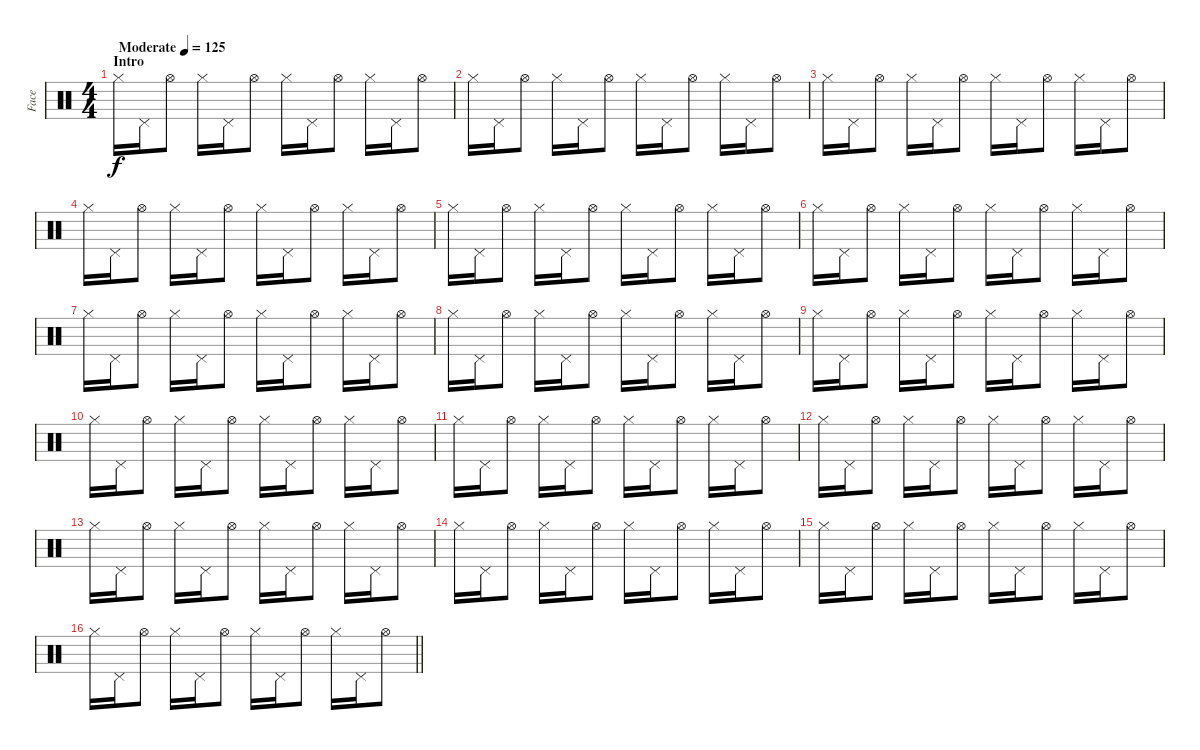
\track ("Face" "Face") {instrument percussion}
\staff {score}
\articulation defaults
\ts (4 4)
\section ("" "Intro")
\tempo (125 "Moderate")
\clef neutral
\ks c "Hi-Hat (closed)".16{dy f} "Pedal Hi-Hat (hit)".16 "Hi-Hat (open)".8 "Hi-Hat (closed)".16 "Pedal Hi-Hat (hit)".16 "Hi-Hat (open)".8 "Hi-Hat (closed)".16 "Pedal Hi-Hat (hit)".16 "Hi-Hat (open)".8 "Hi-Hat (closed)".16 "Pedal Hi-Hat (hit)".16 "Hi-Hat (open)".8
|
"Hi-Hat (closed)".16 "Pedal Hi-Hat (hit)".16 "Hi-Hat (open)".8 "Hi-Hat (closed)".16 "Pedal Hi-Hat (hit)".16 "Hi-Hat (open)".8 "Hi-Hat (closed)".16 "Pedal Hi-Hat (hit)".16 "Hi-Hat (open)".8 "Hi-Hat (closed)".16 "Pedal Hi-Hat (hit)".16 "Hi-Hat (open)".8 |
"Hi-Hat (closed)".16 "Pedal Hi-Hat (hit)".16 "Hi-Hat (open)".8 "Hi-Hat (closed)".16 "Pedal Hi-Hat (hit)".16 "Hi-Hat (open)".8 "Hi-Hat (closed)".16 "Pedal Hi-Hat (hit)".16 "Hi-Hat (open)".8 "Hi-Hat (closed)".16 "Pedal Hi-Hat (hit)".16 "Hi-Hat (open)".8 |
"Hi-Hat (closed)".16 "Pedal Hi-Hat (hit)".16 "Hi-Hat (open)".8 "Hi-Hat (closed)".16 "Pedal Hi-Hat (hit)".16 "Hi-Hat (open)".8 "Hi-Hat (closed)".16 "Pedal Hi-Hat (hit)".16 "Hi-Hat (open)".8 "Hi-Hat (closed)".16 "Pedal Hi-Hat (hit)".16 "Hi-Hat (open)".8 |
"Hi-Hat (closed)".16 "Pedal Hi-Hat (hit)".16 "Hi-Hat (open)".8 "Hi-Hat (closed)".16 "Pedal Hi-Hat (hit)".16 "Hi-Hat (open)".8 "Hi-Hat (closed)".16 "Pedal Hi-Hat (hit)".16 "Hi-Hat (open)".8 "Hi-Hat (closed)".16 "Pedal Hi-Hat (hit)".16 "Hi-Hat (open)".8 |
"Hi-Hat (closed)".16 "Pedal Hi-Hat (hit)".16 "Hi-Hat (open)".8 "Hi-Hat (closed)".16 "Pedal Hi-Hat (hit)".16 "Hi-Hat (open)".8 "Hi-Hat (closed)".16 "Pedal Hi-Hat (hit)".16 "Hi-Hat (open)".8 "Hi-Hat (closed)".16 "Pedal Hi-Hat (hit)".16 "Hi-Hat (open)".8 |
"Hi-Hat (closed)".16 "Pedal Hi-Hat (hit)".16 "Hi-Hat (open)".8 "Hi-Hat (closed)".16 "Pedal Hi-Hat (hit)".16 "Hi-Hat (open)".8 "Hi-Hat (closed)".16 "Pedal Hi-Hat (hit)".16 "Hi-Hat (open)".8 "Hi-Hat (closed)".16 "Pedal Hi-Hat (hit)".16 "Hi-Hat (open)".8 |
"Hi-Hat (closed)".16 "Pedal Hi-Hat (hit)".16 "Hi-Hat (open)".8 "Hi-Hat (closed)".16 "Pedal Hi-Hat (hit)".16 "Hi-Hat (open)".8 "Hi-Hat (closed)".16 "Pedal Hi-Hat (hit)".16 "Hi-Hat (open)".8 "Hi-Hat (closed)".16 "Pedal Hi-Hat (hit)".16 "Hi-Hat (open)".8 |
"Hi-Hat (closed)".16 "Pedal Hi-Hat (hit)".16 "Hi-Hat (open)".8 "Hi-Hat (closed)".16 "Pedal Hi-Hat (hit)".16 "Hi-Hat (open)".8 "Hi-Hat (closed)".16 "Pedal Hi-Hat (hit)".16 "Hi-Hat (open)".8 "Hi-Hat (closed)".16 "Pedal Hi-Hat (hit)".16 "Hi-Hat (open)".8 |
"Hi-Hat (closed)".16 "Pedal Hi-Hat (hit)".16 "Hi-Hat (open)".8 "Hi-Hat (closed)".16 "Pedal Hi-Hat (hit)".16 "Hi-Hat (open)".8 "Hi-Hat (closed)".16 "Pedal Hi-Hat (hit)".16 "Hi-Hat (open)".8 "Hi-Hat (closed)".16 "Pedal Hi-Hat (hit)".16 "Hi-Hat (open)".8 |
"Hi-Hat (closed)".16 "Pedal Hi-Hat (hit)".16 "Hi-Hat (open)".8 "Hi-Hat (closed)".16 "Pedal Hi-Hat (hit)".16 "Hi-Hat (open)".8 "Hi-Hat (closed)".16 "Pedal Hi-Hat (hit)".16 "Hi-Hat (open)".8 "Hi-Hat (closed)".16 "Pedal Hi-Hat (hit)".16 "Hi-Hat (open)".8 |
"Hi-Hat (closed)".16 "Pedal Hi-Hat (hit)".16 "Hi-Hat (open)".8 "Hi-Hat (closed)".16 "Pedal Hi-Hat (hit)".16 "Hi-Hat (open)".8 "Hi-Hat (closed)".16 "Pedal Hi-Hat (hit)".16 "Hi-Hat (open)".8 "Hi-Hat (closed)".16 "Pedal Hi-Hat (hit)".16 "Hi-Hat (open)".8 |
"Hi-Hat (closed)".16 "Pedal Hi-Hat (hit)".16 "Hi-Hat (open)".8 "Hi-Hat (closed)".16 "Pedal Hi-Hat (hit)".16 "Hi-Hat (open)".8 "Hi-Hat (closed)".16 "Pedal Hi-Hat (hit)".16 "Hi-Hat (open)".8 "Hi-Hat (closed)".16 "Pedal Hi-Hat (hit)".16 "Hi-Hat (open)".8 |
"Hi-Hat (closed)".16 "Pedal Hi-Hat (hit)".16 "Hi-Hat (open)".8 "Hi-Hat (closed)".16 "Pedal Hi-Hat (hit)".16 "Hi-Hat (open)".8 "Hi-Hat (closed)".16 "Pedal Hi-Hat (hit)".16 "Hi-Hat (open)".8 "Hi-Hat (closed)".16 "Pedal Hi-Hat (hit)".16 "Hi-Hat (open)".8 |
"Hi-Hat (closed)".16 "Pedal Hi-Hat (hit)".16 "Hi-Hat (open)".8 "Hi-Hat (closed)".16 "Pedal Hi-Hat (hit)".16 "Hi-Hat (open)".8 "Hi-Hat (closed)".16 "Pedal Hi-Hat (hit)".16 "Hi-Hat (open)".8 "Hi-Hat (closed)".16 "Pedal Hi-Hat (hit)".16 "Hi-Hat (open)".8 |
\barLineRight lightlight "Hi-Hat (closed)".16 "Pedal Hi-Hat (hit)".16 "Hi-Hat (open)".8 "Hi-Hat (closed)".16 "Pedal Hi-Hat (hit)".16 "Hi-Hat (open)".8 "Hi-Hat (closed)".16 "Pedal Hi-Hat (hit)".16 "Hi-Hat (open)".8 "Hi-Hat (closed)".16 "Pedal Hi-Hat (hit)".16 "Hi-Hat (open)".8
